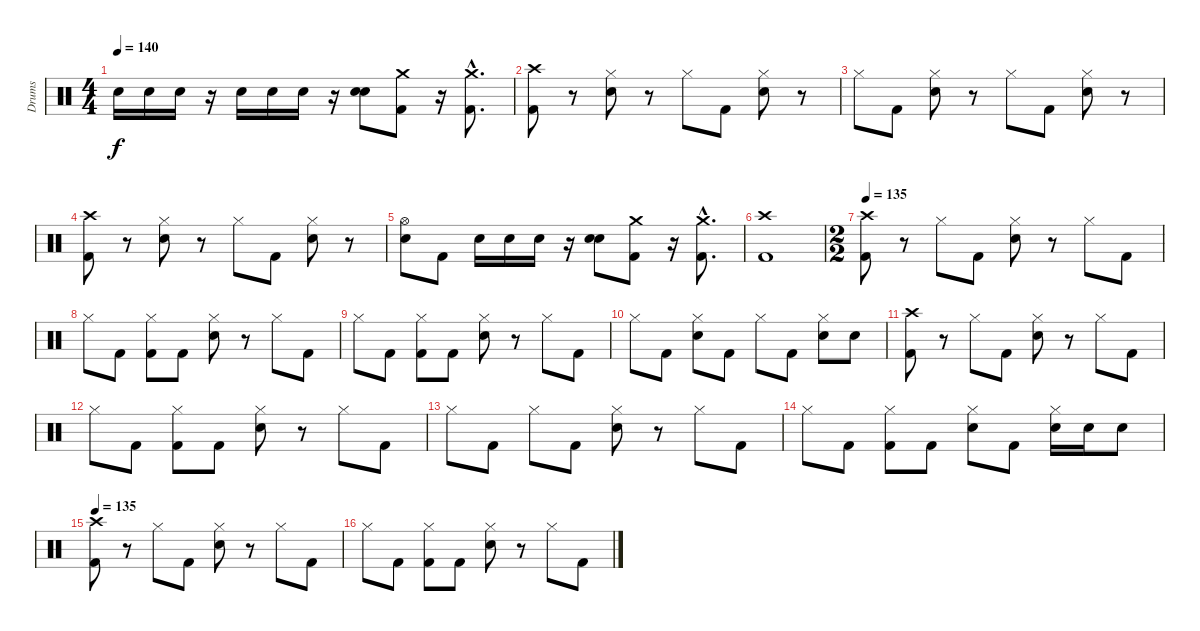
\track ("Drums" "Drums") {instrument percussion}
\staff {score}
\articulation defaults
\ts (4 4)
\tempo 140
\clef neutral
\ks c "Snare (hit) 2".16{dy f} "Snare (hit) 2".16 "Snare (hit) 2".16
r.16 "Snare (hit) 2".16 "Snare (hit) 2".16 "Snare (hit) 2".16 r.16 ("Snare (hit) 2" "Snare (hit) 2").8{bd 480} ("Crash medium (hit)" "Kick (hit) 2").8 r.16 ("Crash medium (hit)"{hac} "Kick (hit) 2"{hac}).8{d} |
("Crash high (hit)" "Kick (hit) 2").8 r.8 ("Hi-Hat (closed)" "Snare (hit) 2").8 r.8 "Hi-Hat (closed)".8 "Kick (hit) 2".8 ("Hi-Hat (closed)" "Snare (hit) 2").8 r.8 |
"Hi-Hat (closed)".8 "Kick (hit) 2".8 ("Hi-Hat (closed)" "Snare (hit) 2").8 r.8 "Hi-Hat (closed)".8 "Kick (hit) 2".8 ("Hi-Hat (closed)" "Snare (hit) 2").8 r.8 |
("Crash high (hit)" "Kick (hit) 2").8 r.8 ("Hi-Hat (closed)" "Snare (hit) 2").8 r.8 "Hi-Hat (closed)".8 "Kick (hit) 2".8 ("Hi-Hat (closed)" "Snare (hit) 2").8 r.8 |
("Hi-Hat (open)" "Snare (hit) 2").8 "Kick (hit) 2".8 "Snare (hit) 2".16 "Snare (hit) 2".16 "Snare (hit) 2".16 r.16 ("Snare (hit) 2" "Snare (hit) 2").8{bd 480} ("Crash medium (hit)" "Kick (hit) 2").8 r.16 ("Crash medium (hit)"{hac} "Kick (hit) 2"{hac}).8{d} |
("Crash high (hit)" "Kick (hit) 2").1 |
\ts (2 2)
\tempo 135
("Crash high (hit)" "Kick (hit) 2").8 r.8 "Hi-Hat (closed)".8 "Kick (hit) 2".8 ("Hi-Hat (closed)" "Snare (hit) 2").8 r.8 "Hi-Hat (closed)".8 "Kick (hit) 2".8 |
"Hi-Hat (closed)".8 "Kick (hit) 2".8 ("Hi-Hat (closed)" "Kick (hit) 2").8 "Kick (hit) 2".8 ("Hi-Hat (closed)" "Snare (hit) 2").8 r.8 "Hi-Hat (closed)".8 "Kick (hit) 2".8 |
"Hi-Hat (closed)".8 "Kick (hit) 2".8 ("Hi-Hat (closed)" "Kick (hit) 2").8 "Kick (hit) 2".8 ("Hi-Hat (closed)" "Snare (hit) 2").8 r.8 "Hi-Hat (closed)".8 "Kick (hit) 2".8 |
"Hi-Hat (closed)".8 "Kick (hit) 2".8 ("Hi-Hat (closed)" "Snare (hit) 2").8 "Kick (hit) 2".8 "Hi-Hat (closed)".8 "Kick (hit) 2".8 ("Hi-Hat (closed)" "Snare (hit) 2").8 "Snare (hit) 2".8 |
("Crash high (hit)" "Kick (hit) 2").8 r.8 "Hi-Hat (closed)".8 "Kick (hit) 2".8 ("Hi-Hat (closed)" "Snare (hit) 2").8 r.8 "Hi-Hat (closed)".8 "Kick (hit) 2".8 |
"Hi-Hat (closed)".8 "Kick (hit) 2".8 ("Hi-Hat (closed)" "Kick (hit) 2").8 "Kick (hit) 2".8 ("Hi-Hat (closed)" "Snare (hit) 2").8 r.8 "Hi-Hat (closed)".8 "Kick (hit) 2".8 |
"Hi-Hat (closed)".8 "Kick (hit) 2".8 "Hi-Hat (closed)".8 "Kick (hit) 2".8 ("Hi-Hat (closed)" "Snare (hit) 2").8 r.8 "Hi-Hat (closed)".8 "Kick (hit) 2".8 |
"Hi-Hat (closed)".8 "Kick (hit) 2".8 ("Hi-Hat (closed)" "Kick (hit) 2").8 "Kick (hit) 2".8 ("Hi-Hat (closed)" "Snare (hit) 2").8 "Kick (hit) 2".8 ("Hi-Hat (closed)" "Snare (hit) 2").16 "Snare (hit) 2".16 "Snare (hit) 2".8 |
\tempo 135
("Crash high (hit)" "Kick (hit) 2").8 r.8 "Hi-Hat (closed)".8 "Kick (hit) 2".8 ("Hi-Hat (closed)" "Snare (hit) 2").8 r.8 "Hi-Hat (closed)".8 "Kick (hit) 2".8 |
"Hi-Hat (closed)".8 "Kick (hit) 2".8 ("Hi-Hat (closed)" "Kick (hit) 2").8 "Kick (hit) 2".8 ("Hi-Hat (closed)" "Snare (hit) 2").8 r.8 "Hi-Hat (closed)".8 "Kick (hit) 2".8
